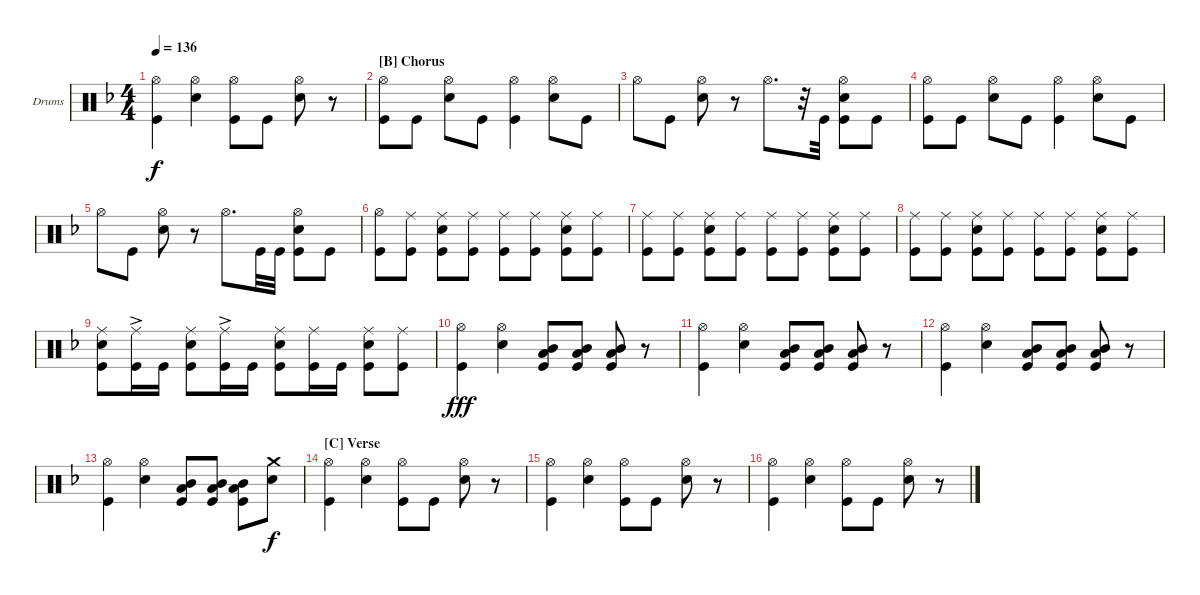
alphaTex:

\defaultSystemsLayout 4
\bracketExtendMode groupsimilarinstruments
\firstSystemTrackNameOrientation horizontal
\otherSystemsTrackNameOrientation horizontal
\track ("Drumkit" "Drums") {instrument percussion}
\staff {score}
\articulation defaults
\ts (4 4)
\tempo 136
\clef neutral
\scale
0.958386
\ks f
("Hi-Hat (open)" "Kick (hit)").4{dy f} ("Hi-Hat (open)" "Snare (hit) 2").4 ("Hi-Hat (open)" "Kick (hit)").8 "Kick (hit)".8 ("Hi-Hat (open)" "Snare (hit) 2").8 r.8 |
\section ("B" "Chorus")
\scale
0.958386 ("Hi-Hat (open)" "Kick (hit)").8 "Kick (hit)".8 ("Hi-Hat (open)" "Snare (hit) 2").8 "Kick (hit)".8 ("Hi-Hat (open)" "Kick (hit)").4 ("Hi-Hat (open)" "Snare (hit) 2").8 "Kick (hit)".8 |
\scale
1.08323 "Hi-Hat (open)".8 "Kick (hit)".8 ("Hi-Hat (open)" "Snare (hit) 2").8 r.8 "Hi-Hat (open)".8{d} r.32 "Kick (hit)".32 ("Hi-Hat (open)" "Snare (hit) 2" "Kick (hit)").8 "Kick (hit)".8 |
\scale
0.958386 ("Hi-Hat (open)" "Kick (hit)").8 "Kick (hit)".8 ("Hi-Hat (open)" "Snare (hit) 2").8 "Kick (hit)".8 ("Hi-Hat (open)" "Kick (hit)").4 ("Hi-Hat (open)" "Snare (hit) 2").8 "Kick (hit)".8 |
\scale
0.958386 "Hi-Hat (open)".8 "Kick (hit)".8 ("Hi-Hat (open)" "Snare (hit) 2").8 r.8 "Hi-Hat (open)".8{d} "Kick (hit)".32 "Kick (hit)".32 ("Hi-Hat (open)" "Snare (hit) 2" "Kick (hit)").8 "Kick (hit)".8 |
\scale
1.08323 ("Hi-Hat (open)" "Kick (hit)").8 ("Ride (middle)" "Kick (hit)").8 ("Ride (middle)" "Kick (hit)" "Snare (hit) 2").8 ("Ride (middle)" "Kick (hit)").8 ("Ride (middle)" "Kick (hit)").8 ("Ride (middle)" "Kick (hit)").8 ("Ride (middle)" "Kick (hit)" "Snare (hit) 2").8 ("Ride (middle)" "Kick (hit)").8 |
\scale
0.958386 ("Ride (middle)" "Kick (hit)").8 ("Ride (middle)" "Kick (hit)").8 ("Ride (middle)" "Kick (hit)" "Snare (hit) 2").8 ("Ride (middle)" "Kick (hit)").8 ("Ride (middle)" "Kick (hit)").8 ("Ride (middle)" "Kick (hit)").8 ("Ride (middle)" "Kick (hit)" "Snare (hit) 2").8 ("Ride (middle)" "Kick (hit)").8 |
\scale
0.958386 ("Ride (middle)" "Kick (hit)").8 ("Ride (middle)" "Kick (hit)").8 ("Ride (middle)" "Kick (hit)" "Snare (hit) 2").8 ("Ride (middle)" "Kick (hit)").8 ("Ride (middle)" "Kick (hit)").8 ("Ride (middle)" "Kick (hit)").8 ("Ride (middle)" "Kick (hit)" "Snare (hit) 2").8 ("Ride (middle)" "Kick (hit)").8 |
\scale
1.08323 ("Ride (middle)" "Snare (hit) 2" "Kick (hit)").8 ("Ride (middle)"{ac} "Kick (hit)").16 "Kick (hit)".16 ("Ride (middle)" "Snare (hit) 2" "Kick (hit)").8 ("Ride (middle)"{ac} "Kick (hit)").16 "Kick (hit)".16 ("Ride (middle)" "Snare (hit) 2" "Kick (hit)").8 ("Ride (middle)" "Kick (hit)").16 "Kick (hit)".16 ("Ride (middle)" "Kick (hit)" "Snare (hit) 2").8 ("Ride (middle)" "Kick (hit)").8 |
\scale
0.958386 ("Kick (hit)" "Hi-Hat (open)").4{dy fff} ("Snare (hit) 2" "Hi-Hat (open)").4 ("Kick (hit)" "Low Tom (hit)" "Mid Tom (hit)").8 ("Kick (hit)" "Low Tom (hit)" "Mid Tom (hit)").8 ("Kick (hit)" "Low Tom (hit)" "Mid Tom (hit)").8 r.8 |
\scale
0.958386 ("Kick (hit)" "Hi-Hat (open)").4 ("Snare (hit) 2" "Hi-Hat (open)").4 ("Kick (hit)" "Low Tom (hit)" "Mid Tom (hit)").8 ("Kick (hit)" "Low Tom (hit)" "Mid Tom (hit)").8 ("Kick (hit)" "Low Tom (hit)" "Mid Tom (hit)").8 r.8 |
\scale
1.08323 ("Kick (hit)" "Hi-Hat (open)").4 ("Snare (hit) 2" "Hi-Hat (open)").4 ("Kick (hit)" "Low Tom (hit)" "Mid Tom (hit)").8 ("Kick (hit)" "Low Tom (hit)" "Mid Tom (hit)").8 ("Kick (hit)" "Low Tom (hit)" "Mid Tom (hit)").8 r.8 |
\scale
0.958386 ("Kick (hit)" "Hi-Hat (open)").4 ("Snare (hit) 2" "Hi-Hat (open)").4 ("Kick (hit)" "Low Tom (hit)" "Mid Tom (hit)").8 ("Kick (hit)" "Low Tom (hit)" "Mid Tom (hit)").8 ("Kick (hit)" "Low Tom (hit)" "Mid Tom (hit)").8 ("Crash medium (hit)" "Snare (hit) 2").8{dy f} |
\section ("C" "Verse")
\scale
0.958386 ("Hi-Hat (open)" "Kick (hit)").4 ("Hi-Hat (open)" "Snare (hit) 2").4 ("Hi-Hat (open)" "Kick (hit)").8 "Kick (hit)".8 ("Hi-Hat (open)" "Snare (hit) 2").8 r.8 |
\scale
1.08323 ("Hi-Hat (open)" "Kick (hit)").4 ("Hi-Hat (open)" "Snare (hit) 2").4 ("Hi-Hat (open)" "Kick (hit)").8 "Kick (hit)".8 ("Hi-Hat (open)" "Snare (hit) 2").8 r.8 |
\scale
0.958386 ("Hi-Hat (open)" "Kick (hit)").4 ("Hi-Hat (open)" "Snare (hit) 2").4 ("Hi-Hat (open)" "Kick (hit)").8 "Kick (hit)".8 ("Hi-Hat (open)" "Snare (hit) 2").8 r.8
